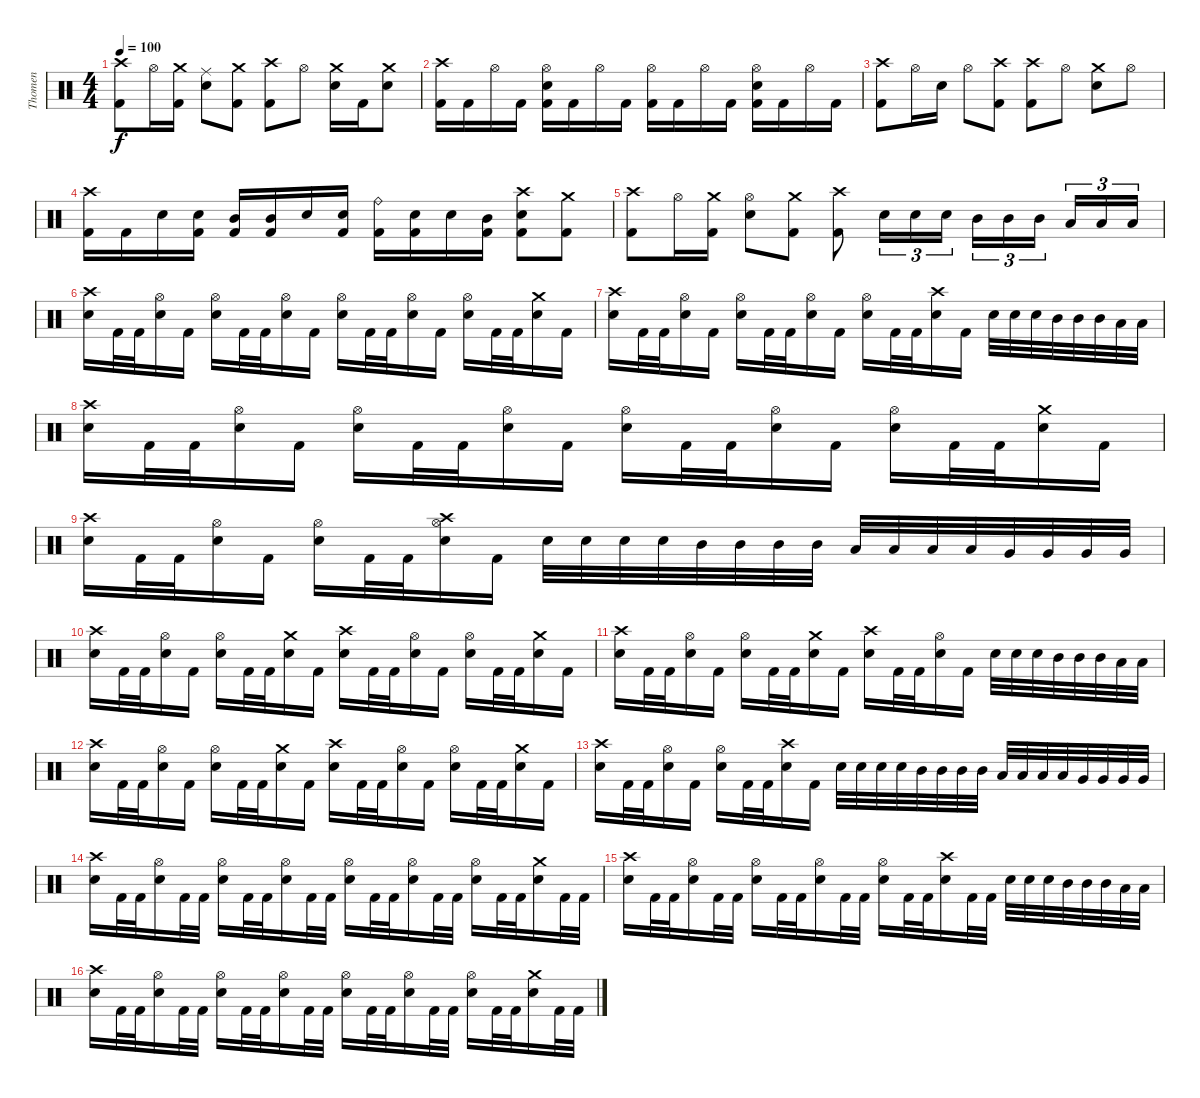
\track ("Thomen" "Thomen") {instrument percussion}
\staff {score}
\articulation defaults
\ts (4 4)
\tempo 100
\clef neutral
\ks c
("Crash high (hit)" "Kick (hit) 2").8{dy f} "Hi-Hat (open)".16 ("Crash medium (hit)" "Kick (hit) 2").16 ("Ride (middle)" "Snare (hit) 2").8 ("Crash medium (hit)" "Kick (hit) 2").8 ("Crash high (hit)" "Kick (hit) 2").8 "Hi-Hat (open)".8 ("Crash medium (hit)" "Snare (hit) 2").16 "Kick (hit) 2".16 ("Crash medium (hit)" "Snare (hit) 2").8 |
("Crash high (hit)" "Kick (hit) 2").16 "Kick (hit) 2".16 "Hi-Hat (open)".16 "Kick (hit) 2".16 ("Hi-Hat (open)" "Snare (hit) 2" "Kick (hit) 2").16 "Kick (hit) 2".16 "Hi-Hat (open)".16 "Kick (hit) 2".16 ("Hi-Hat (open)" "Kick (hit) 2").16 "Kick (hit) 2".16 "Hi-Hat (open)".16 "Kick (hit) 2".16 ("Hi-Hat (open)" "Snare (hit) 2" "Kick (hit) 2").16 "Kick (hit) 2".16 "Hi-Hat (open)".16 "Kick (hit) 2".16 |
("Crash high (hit)" "Kick (hit) 2").8 "Hi-Hat (open)".16 "Snare (hit) 2".16 "Hi-Hat (open)".8 ("Crash high (hit)" "Kick (hit) 2").8 ("Crash high (hit)" "Kick (hit) 2").8 "Hi-Hat (open)".8 ("Crash medium (hit)" "Snare (hit) 2").8 "Hi-Hat (open)".8 |
("Crash high (hit)" "Kick (hit) 2").16 "Kick (hit) 2".16 "Snare (hit) 2".16 ("Snare (hit) 2" "Kick (hit) 2").16 ("Mid Tom (hit)" "Kick (hit) 2").16 ("Mid Tom (hit)" "Kick (hit) 2").16 "Snare (hit) 2".16 ("Snare (hit) 2" "Kick (hit) 2").16 ("Ride (bell)" "Kick (hit) 2").16 ("Snare (hit) 2" "Kick (hit) 2").16 "Snare (hit) 2".16 ("Mid Tom (hit)" "Kick (hit) 2").16 ("Crash high (hit)" "Snare (hit) 2" "Kick (hit) 2").8 ("Crash medium (hit)" "Kick (hit) 2").8 |
("Crash high (hit)" "Kick (hit) 2").8 "Hi-Hat (open)".16 ("Crash medium (hit)" "Kick (hit) 2").16 ("Hi-Hat (open)" "Snare (hit) 2").8 ("Crash medium (hit)" "Kick (hit) 2").8 ("Crash high (hit)" "Kick (hit) 2").8 "Snare (hit) 2".16{tu (3 2)} "Snare (hit) 2".16{tu (3 2)} "Snare (hit) 2".16{tu (3 2)} "Mid Tom (hit)".16{tu (3 2)} "Mid Tom (hit)".16{tu (3 2)} "Mid Tom (hit)".16{tu (3 2)} "Low Tom (hit)".16{tu (3 2)} "Low Tom (hit)".16{tu (3 2)} "Low Tom (hit)".16{tu (3 2)} |
("Crash high (hit)" "Snare (hit) 2").16 "Kick (hit) 2".32 "Kick (hit) 2".32 ("Hi-Hat (open)" "Snare (hit) 2").16 "Kick (hit) 2".16 ("Hi-Hat (open)" "Snare (hit) 2").16 "Kick (hit) 2".32 "Kick (hit) 2".32 ("Hi-Hat (open)" "Snare (hit) 2").16 "Kick (hit) 2".16 ("Hi-Hat (open)" "Snare (hit) 2").16 "Kick (hit) 2".32 "Kick (hit) 2".32 ("Hi-Hat (open)" "Snare (hit) 2").16 "Kick (hit) 2".16 ("Hi-Hat (open)" "Snare (hit) 2").16 "Kick (hit) 2".32 "Kick (hit) 2".32 ("Crash medium (hit)" "Snare (hit) 2").16 "Kick (hit) 2".16 |
("Crash high (hit)" "Snare (hit) 2").16 "Kick (hit) 2".32 "Kick (hit) 2".32 ("Hi-Hat (open)" "Snare (hit) 2").16 "Kick (hit) 2".16 ("Hi-Hat (open)" "Snare (hit) 2").16 "Kick (hit) 2".32 "Kick (hit) 2".32 ("Hi-Hat (open)" "Snare (hit) 2").16 "Kick (hit) 2".16 ("Hi-Hat (open)" "Snare (hit) 2").16 "Kick (hit) 2".32 "Kick (hit) 2".32 ("Crash high (hit)" "Snare (hit) 2").16 "Kick (hit) 2".16 "Snare (hit) 2".32 "Snare (hit) 2".32 "Snare (hit) 2".32 "Mid Tom (hit)".32 "Mid Tom (hit)".32 "Mid Tom (hit)".32 "Low Tom (hit)".32 "Low Tom (hit)".32 |
("Crash high (hit)" "Snare (hit) 2").16 "Kick (hit) 2".32 "Kick (hit) 2".32 ("Hi-Hat (open)" "Snare (hit) 2").16 "Kick (hit) 2".16 ("Hi-Hat (open)" "Snare (hit) 2").16 "Kick (hit) 2".32 "Kick (hit) 2".32 ("Hi-Hat (open)" "Snare (hit) 2").16 "Kick (hit) 2".16 ("Hi-Hat (open)" "Snare (hit) 2").16 "Kick (hit) 2".32 "Kick (hit) 2".32 ("Hi-Hat (open)" "Snare (hit) 2").16 "Kick (hit) 2".16 ("Hi-Hat (open)" "Snare (hit) 2").16 "Kick (hit) 2".32 "Kick (hit) 2".32 ("Crash medium (hit)" "Snare (hit) 2").16 "Kick (hit) 2".16 |
("Crash high (hit)" "Snare (hit) 2").16 "Kick (hit) 2".32 "Kick (hit) 2".32 ("Hi-Hat (open)" "Snare (hit) 2").16 "Kick (hit) 2".16 ("Hi-Hat (open)" "Snare (hit) 2").16 "Kick (hit) 2".32 "Kick (hit) 2".32 ("Crash high (hit)" "Hi-Hat (open)" "Snare (hit) 2").16 "Kick (hit) 2".16 "Snare (hit) 2".32 "Snare (hit) 2".32 "Snare (hit) 2".32 "Snare (hit) 2".32 "Mid Tom (hit)".32 "Mid Tom (hit)".32 "Mid Tom (hit)".32 "Mid Tom (hit)".32 "Low Tom (hit)".32 "Low Tom (hit)".32 "Low Tom (hit)".32 "Low Tom (hit)".32 "Very Low Tom (hit)".32 "Very Low Tom (hit)".32 "Very Low Tom (hit)".32 "Very Low Tom (hit)".32 |
("Crash high (hit)" "Snare (hit) 2").16 "Kick (hit) 2".32 "Kick (hit) 2".32 ("Hi-Hat (open)" "Snare (hit) 2").16 "Kick (hit) 2".16 ("Hi-Hat (open)" "Snare (hit) 2").16 "Kick (hit) 2".32 "Kick (hit) 2".32 ("Crash medium (hit)" "Snare (hit) 2").16 "Kick (hit) 2".16 ("Crash high (hit)" "Snare (hit) 2").16 "Kick (hit) 2".32 "Kick (hit) 2".32 ("Hi-Hat (open)" "Snare (hit) 2").16 "Kick (hit) 2".16 ("Hi-Hat (open)" "Snare (hit) 2").16 "Kick (hit) 2".32 "Kick (hit) 2".32 ("Crash medium (hit)" "Snare (hit) 2").16 "Kick (hit) 2".16 |
("Crash high (hit)" "Snare (hit) 2").16 "Kick (hit) 2".32 "Kick (hit) 2".32 ("Hi-Hat (open)" "Snare (hit) 2").16 "Kick (hit) 2".16 ("Hi-Hat (open)" "Snare (hit) 2").16 "Kick (hit) 2".32 "Kick (hit) 2".32 ("Crash medium (hit)" "Snare (hit) 2").16 "Kick (hit) 2".16 ("Crash high (hit)" "Snare (hit) 2").16 "Kick (hit) 2".32 "Kick (hit) 2".32 ("Hi-Hat (open)" "Snare (hit) 2").16 "Kick (hit) 2".16 "Snare (hit) 2".32 "Snare (hit) 2".32 "Snare (hit) 2".32 "Mid Tom (hit)".32 "Mid Tom (hit)".32 "Mid Tom (hit)".32 "Low Tom (hit)".32 "Low Tom (hit)".32 |
("Crash high (hit)" "Snare (hit) 2").16 "Kick (hit) 2".32 "Kick (hit) 2".32 ("Hi-Hat (open)" "Snare (hit) 2").16 "Kick (hit) 2".16 ("Hi-Hat (open)" "Snare (hit) 2").16 "Kick (hit) 2".32 "Kick (hit) 2".32 ("Crash medium (hit)" "Snare (hit) 2").16 "Kick (hit) 2".16 ("Crash high (hit)" "Snare (hit) 2").16 "Kick (hit) 2".32 "Kick (hit) 2".32 ("Hi-Hat (open)" "Snare (hit) 2").16 "Kick (hit) 2".16 ("Hi-Hat (open)" "Snare (hit) 2").16 "Kick (hit) 2".32 "Kick (hit) 2".32 ("Crash medium (hit)" "Snare (hit) 2").16 "Kick (hit) 2".16 |
("Crash high (hit)" "Snare (hit) 2").16 "Kick (hit) 2".32 "Kick (hit) 2".32 ("Hi-Hat (open)" "Snare (hit) 2").16 "Kick (hit) 2".16 ("Hi-Hat (open)" "Snare (hit) 2").16 "Kick (hit) 2".32 "Kick (hit) 2".32 ("Crash high (hit)" "Snare (hit) 2").16 "Kick (hit) 2".16 "Snare (hit) 2".32 "Snare (hit) 2".32 "Snare (hit) 2".32 "Snare (hit) 2".32 "Mid Tom (hit)".32 "Mid Tom (hit)".32 "Mid Tom (hit)".32 "Mid Tom (hit)".32 "Low Tom (hit)".32 "Low Tom (hit)".32 "Low Tom (hit)".32 "Low Tom (hit)".32 "Very Low Tom (hit)".32 "Very Low Tom (hit)".32 "Very Low Tom (hit)".32 "Very Low Tom (hit)".32 |
("Crash high (hit)" "Snare (hit) 2").16 "Kick (hit) 2".32 "Kick (hit) 2".32 ("Hi-Hat (open)" "Snare (hit) 2").16 "Kick (hit) 2".32 "Kick (hit) 2".32 ("Hi-Hat (open)" "Snare (hit) 2").16 "Kick (hit) 2".32 "Kick (hit) 2".32 ("Hi-Hat (open)" "Snare (hit) 2").16 "Kick (hit) 2".32 "Kick (hit) 2".32 ("Hi-Hat (open)" "Snare (hit) 2").16 "Kick (hit) 2".32 "Kick (hit) 2".32 ("Hi-Hat (open)" "Snare (hit) 2").16 "Kick (hit) 2".32 "Kick (hit) 2".32 ("Hi-Hat (open)" "Snare (hit) 2").16 "Kick (hit) 2".32 "Kick (hit) 2".32 ("Crash medium (hit)" "Snare (hit) 2").16 "Kick (hit) 2".32 "Kick (hit) 2".32 |
("Crash high (hit)" "Snare (hit) 2").16 "Kick (hit) 2".32 "Kick (hit) 2".32 ("Hi-Hat (open)" "Snare (hit) 2").16 "Kick (hit) 2".32 "Kick (hit) 2".32 ("Hi-Hat (open)" "Snare (hit) 2").16 "Kick (hit) 2".32 "Kick (hit) 2".32 ("Hi-Hat (open)" "Snare (hit) 2").16 "Kick (hit) 2".32 "Kick (hit) 2".32 ("Hi-Hat (open)" "Snare (hit) 2").16 "Kick (hit) 2".32 "Kick (hit) 2".32 ("Crash high (hit)" "Snare (hit) 2").16 "Kick (hit) 2".32 "Kick (hit) 2".32 "Snare (hit) 2".32 "Snare (hit) 2".32 "Snare (hit) 2".32 "Mid Tom (hit)".32 "Mid Tom (hit)".32 "Mid Tom (hit)".32 "Low Tom (hit)".32 "Low Tom (hit)".32 |
("Crash high (hit)" "Snare (hit) 2").16 "Kick (hit) 2".32 "Kick (hit) 2".32 ("Hi-Hat (open)" "Snare (hit) 2").16 "Kick (hit) 2".32 "Kick (hit) 2".32 ("Hi-Hat (open)" "Snare (hit) 2").16 "Kick (hit) 2".32 "Kick (hit) 2".32 ("Hi-Hat (open)" "Snare (hit) 2").16 "Kick (hit) 2".32 "Kick (hit) 2".32 ("Hi-Hat (open)" "Snare (hit) 2").16 "Kick (hit) 2".32 "Kick (hit) 2".32 ("Hi-Hat (open)" "Snare (hit) 2").16 "Kick (hit) 2".32 "Kick (hit) 2".32 ("Hi-Hat (open)" "Snare (hit) 2").16 "Kick (hit) 2".32 "Kick (hit) 2".32 ("Crash medium (hit)" "Snare (hit) 2").16 "Kick (hit) 2".32 "Kick (hit) 2".32
